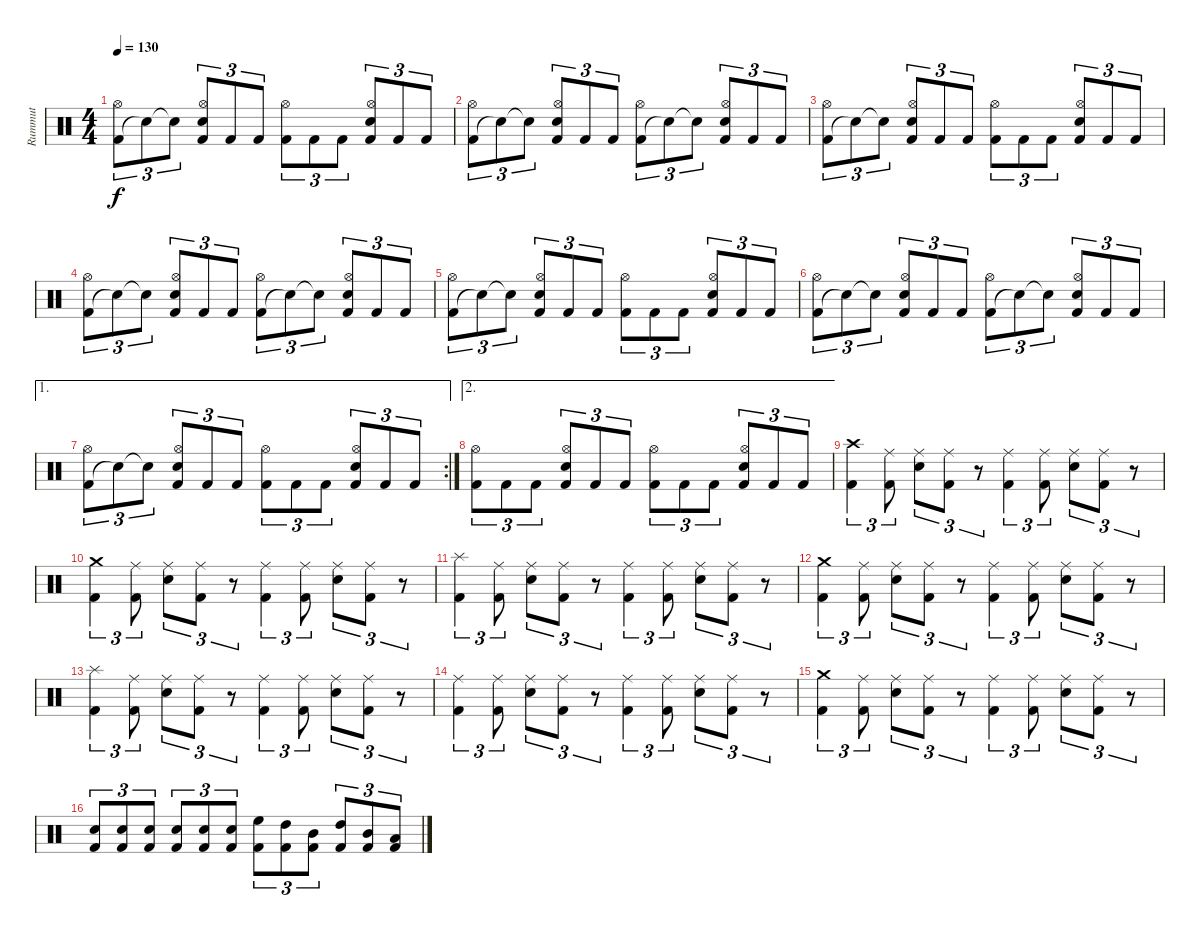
\track ("Rummut" "Rummut") {instrument percussion}
\staff {score}
\articulation defaults
\ts (4 4)
\tempo 130
\clef neutral
\ks c
("Kick (hit) 2" "Hi-Hat (open)").8{tu (3 2) dy f} "Snare (hit)"{t}.8{tu (3 2)} "Snare (hit)"{t}.8{tu (3 2)} ("Kick (hit) 2" "Electric Snare (hit)" "Hi-Hat (open)").8{tu (3 2)} "Kick (hit) 2".8{tu (3 2)} "Kick (hit) 2".8{tu (3 2)} ("Kick (hit) 2" "Hi-Hat (open)").8{tu (3 2)} "Kick (hit) 2".8{tu (3 2)} "Kick (hit) 2".8{tu (3 2)} ("Kick (hit) 2" "Electric Snare (hit)" "Hi-Hat (open)").8{tu (3 2)} "Kick (hit) 2".8{tu (3 2)} "Kick (hit) 2".8{tu (3 2)} |
("Kick (hit) 2" "Hi-Hat (open)").8{tu (3 2)} "Snare (hit)"{t}.8{tu (3 2)} "Snare (hit)"{t}.8{tu (3 2)} ("Kick (hit) 2" "Electric Snare (hit)" "Hi-Hat (open)").8{tu (3 2)} "Kick (hit) 2".8{tu (3 2)} "Kick (hit) 2".8{tu (3 2)} ("Kick (hit) 2" "Hi-Hat (open)").8{tu (3 2)} "Snare (hit)"{t}.8{tu (3 2)} "Snare (hit)"{t}.8{tu (3 2)} ("Kick (hit) 2" "Electric Snare (hit)" "Hi-Hat (open)").8{tu (3 2)} "Kick (hit) 2".8{tu (3 2)} "Kick (hit) 2".8{tu (3 2)} |
("Kick (hit) 2" "Hi-Hat (open)").8{tu (3 2)} "Snare (hit)"{t}.8{tu (3 2)} "Snare (hit)"{t}.8{tu (3 2)} ("Kick (hit) 2" "Electric Snare (hit)" "Hi-Hat (open)").8{tu (3 2)} "Kick (hit) 2".8{tu (3 2)} "Kick (hit) 2".8{tu (3 2)} ("Kick (hit) 2" "Hi-Hat (open)").8{tu (3 2)} "Kick (hit) 2".8{tu (3 2)} "Kick (hit) 2".8{tu (3 2)} ("Kick (hit) 2" "Electric Snare (hit)" "Hi-Hat (open)").8{tu (3 2)} "Kick (hit) 2".8{tu (3 2)} "Kick (hit) 2".8{tu (3 2)} |
("Kick (hit) 2" "Hi-Hat (open)").8{tu (3 2)} "Snare (hit)"{t}.8{tu (3 2)} "Snare (hit)"{t}.8{tu (3 2)} ("Kick (hit) 2" "Electric Snare (hit)" "Hi-Hat (open)").8{tu (3 2)} "Kick (hit) 2".8{tu (3 2)} "Kick (hit) 2".8{tu (3 2)} ("Kick (hit) 2" "Hi-Hat (open)").8{tu (3 2)} "Snare (hit)"{t}.8{tu (3 2)} "Snare (hit)"{t}.8{tu (3 2)} ("Kick (hit) 2" "Electric Snare (hit)" "Hi-Hat (open)").8{tu (3 2)} "Kick (hit) 2".8{tu (3 2)} "Kick (hit) 2".8{tu (3 2)} |
("Kick (hit) 2" "Hi-Hat (open)").8{tu (3 2)} "Snare (hit)"{t}.8{tu (3 2)} "Snare (hit)"{t}.8{tu (3 2)} ("Kick (hit) 2" "Electric Snare (hit)" "Hi-Hat (open)").8{tu (3 2)} "Kick (hit) 2".8{tu (3 2)} "Kick (hit) 2".8{tu (3 2)} ("Kick (hit) 2" "Hi-Hat (open)").8{tu (3 2)} "Kick (hit) 2".8{tu (3 2)} "Kick (hit) 2".8{tu (3 2)} ("Kick (hit) 2" "Electric Snare (hit)" "Hi-Hat (open)").8{tu (3 2)} "Kick (hit) 2".8{tu (3 2)} "Kick (hit) 2".8{tu (3 2)} |
("Kick (hit) 2" "Hi-Hat (open)").8{tu (3 2)} "Snare (hit)"{t}.8{tu (3 2)} "Snare (hit)"{t}.8{tu (3 2)} ("Kick (hit) 2" "Electric Snare (hit)" "Hi-Hat (open)").8{tu (3 2)} "Kick (hit) 2".8{tu (3 2)} "Kick (hit) 2".8{tu (3 2)} ("Kick (hit) 2" "Hi-Hat (open)").8{tu (3 2)} "Snare (hit)"{t}.8{tu (3 2)} "Snare (hit)"{t}.8{tu (3 2)} ("Kick (hit) 2" "Electric Snare (hit)" "Hi-Hat (open)").8{tu (3 2)} "Kick (hit) 2".8{tu (3 2)} "Kick (hit) 2".8{tu (3 2)} |
\ae 1
\rc 2
("Kick (hit) 2" "Hi-Hat (open)").8{tu (3 2)} "Snare (hit)"{t}.8{tu (3 2)} "Snare (hit)"{t}.8{tu (3 2)} ("Kick (hit) 2" "Electric Snare (hit)" "Hi-Hat (open)").8{tu (3 2)} "Kick (hit) 2".8{tu (3 2)} "Kick (hit) 2".8{tu (3 2)} ("Kick (hit) 2" "Hi-Hat (open)").8{tu (3 2)} "Kick (hit) 2".8{tu (3 2)} "Kick (hit) 2".8{tu (3 2)} ("Kick (hit) 2" "Electric Snare (hit)" "Hi-Hat (open)").8{tu (3 2)} "Kick (hit) 2".8{tu (3 2)} "Kick (hit) 2".8{tu (3 2)} |
\ae 2
("Kick (hit) 2" "Hi-Hat (open)").8{tu (3 2)} "Kick (hit) 2".8{tu (3 2)} "Kick (hit) 2".8{tu (3 2)} ("Kick (hit) 2" "Electric Snare (hit)" "Hi-Hat (open)").8{tu (3 2)} "Kick (hit) 2".8{tu (3 2)} "Kick (hit) 2".8{tu (3 2)} ("Kick (hit) 2" "Hi-Hat (open)").8{tu (3 2)} "Kick (hit) 2".8{tu (3 2)} "Kick (hit) 2".8{tu (3 2)} ("Kick (hit) 2" "Electric Snare (hit)" "Hi-Hat (open)").8{tu (3 2)} "Kick (hit) 2".8{tu (3 2)} "Kick (hit) 2".8{tu (3 2)} |
("Kick (hit) 2" "Crash high (hit)").4{tu (3 2)} ("Kick (hit) 2" "Ride (middle)").8{tu (3 2)} ("Electric Snare (hit)" "Ride (middle)").8{tu (3 2)} ("Kick (hit) 2" "Ride (middle)").8{tu (3 2)} r.8{tu (3 2)} ("Kick (hit) 2" "Ride (middle)").4{tu (3 2)} ("Kick (hit) 2" "Ride (middle)").8{tu (3 2)} ("Electric Snare (hit)" "Ride (middle)").8{tu (3 2)} ("Kick (hit) 2" "Ride (middle)").8{tu (3 2)} r.8{tu (3 2)} |
("Kick (hit) 2" "Crash medium (hit)").4{tu (3 2)} ("Kick (hit) 2" "Ride (middle)").8{tu (3 2)} ("Electric Snare (hit)" "Ride (middle)").8{tu (3 2)} ("Kick (hit) 2" "Ride (middle)").8{tu (3 2)} r.8{tu (3 2)} ("Kick (hit) 2" "Ride (middle)").4{tu (3 2)} ("Kick (hit) 2" "Ride (middle)").8{tu (3 2)} ("Electric Snare (hit)" "Ride (middle)").8{tu (3 2)} ("Kick (hit) 2" "Ride (middle)").8{tu (3 2)} r.8{tu (3 2)} |
("Kick (hit) 2" "Splash (hit)").4{tu (3 2)} ("Kick (hit) 2" "Ride (middle)").8{tu (3 2)} ("Electric Snare (hit)" "Ride (middle)").8{tu (3 2)} ("Kick (hit) 2" "Ride (middle)").8{tu (3 2)} r.8{tu (3 2)} ("Kick (hit) 2" "Ride (middle)").4{tu (3 2)} ("Kick (hit) 2" "Ride (middle)").8{tu (3 2)} ("Electric Snare (hit)" "Ride (middle)").8{tu (3 2)} ("Kick (hit) 2" "Ride (middle)").8{tu (3 2)} r.8{tu (3 2)} |
("Kick (hit) 2" "Crash medium (hit)").4{tu (3 2)} ("Kick (hit) 2" "Ride (middle)").8{tu (3 2)} ("Electric Snare (hit)" "Ride (middle)").8{tu (3 2)} ("Kick (hit) 2" "Ride (middle)").8{tu (3 2)} r.8{tu (3 2)} ("Kick (hit) 2" "Ride (middle)").4{tu (3 2)} ("Kick (hit) 2" "Ride (middle)").8{tu (3 2)} ("Electric Snare (hit)" "Ride (middle)").8{tu (3 2)} ("Kick (hit) 2" "Ride (middle)").8{tu (3 2)} r.8{tu (3 2)} |
("Kick (hit) 2" "Splash (hit)").4{tu (3 2)} ("Kick (hit) 2" "Ride (middle)").8{tu (3 2)} ("Electric Snare (hit)" "Ride (middle)").8{tu (3 2)} ("Kick (hit) 2" "Ride (middle)").8{tu (3 2)} r.8{tu (3 2)} ("Kick (hit) 2" "Ride (middle)").4{tu (3 2)} ("Kick (hit) 2" "Ride (middle)").8{tu (3 2)} ("Electric Snare (hit)" "Ride (middle)").8{tu (3 2)} ("Kick (hit) 2" "Ride (middle)").8{tu (3 2)} r.8{tu (3 2)} |
("Kick (hit) 2" "Ride (middle)").4{tu (3 2)} ("Kick (hit) 2" "Ride (middle)").8{tu (3 2)} ("Electric Snare (hit)" "Ride (middle)").8{tu (3 2)} ("Kick (hit) 2" "Ride (middle)").8{tu (3 2)} r.8{tu (3 2)} ("Kick (hit) 2" "Ride (middle)").4{tu (3 2)} ("Kick (hit) 2" "Ride (middle)").8{tu (3 2)} ("Electric Snare (hit)" "Ride (middle)").8{tu (3 2)} ("Kick (hit) 2" "Ride (middle)").8{tu (3 2)} r.8{tu (3 2)} |
("Kick (hit) 2" "Crash medium (hit)").4{tu (3 2)} ("Kick (hit) 2" "Ride (middle)").8{tu (3 2)} ("Electric Snare (hit)" "Ride (middle)").8{tu (3 2)} ("Kick (hit) 2" "Ride (middle)").8{tu (3 2)} r.8{tu (3 2)} ("Kick (hit) 2" "Ride (middle)").4{tu (3 2)} ("Kick (hit) 2" "Ride (middle)").8{tu (3 2)} ("Electric Snare (hit)" "Ride (middle)").8{tu (3 2)} ("Kick (hit) 2" "Ride (middle)").8{tu (3 2)} r.8{tu (3 2)} |
("Electric Snare (hit)" "Kick (hit) 2").8{tu (3 2)} ("Electric Snare (hit)" "Kick (hit) 2").8{tu (3 2)} ("Electric Snare (hit)" "Kick (hit) 2").8{tu (3 2)} ("Electric Snare (hit)" "Kick (hit) 2").8{tu (3 2)} ("Electric Snare (hit)" "Kick (hit) 2").8{tu (3 2)} ("Electric Snare (hit)" "Kick (hit) 2").8{tu (3 2)} ("High Floor Tom (hit)" "Kick (hit) 2").8{tu (3 2)} ("High Tom (hit)" "Kick (hit) 2").8{tu (3 2)} ("Mid Tom (hit)" "Kick (hit) 2").8{tu (3 2)} ("High Tom (hit)" "Kick (hit) 2").8{tu (3 2)} ("Mid Tom (hit)" "Kick (hit) 2").8{tu (3 2)} ("Low Tom (hit)" "Kick (hit) 2").8{tu (3 2)}
